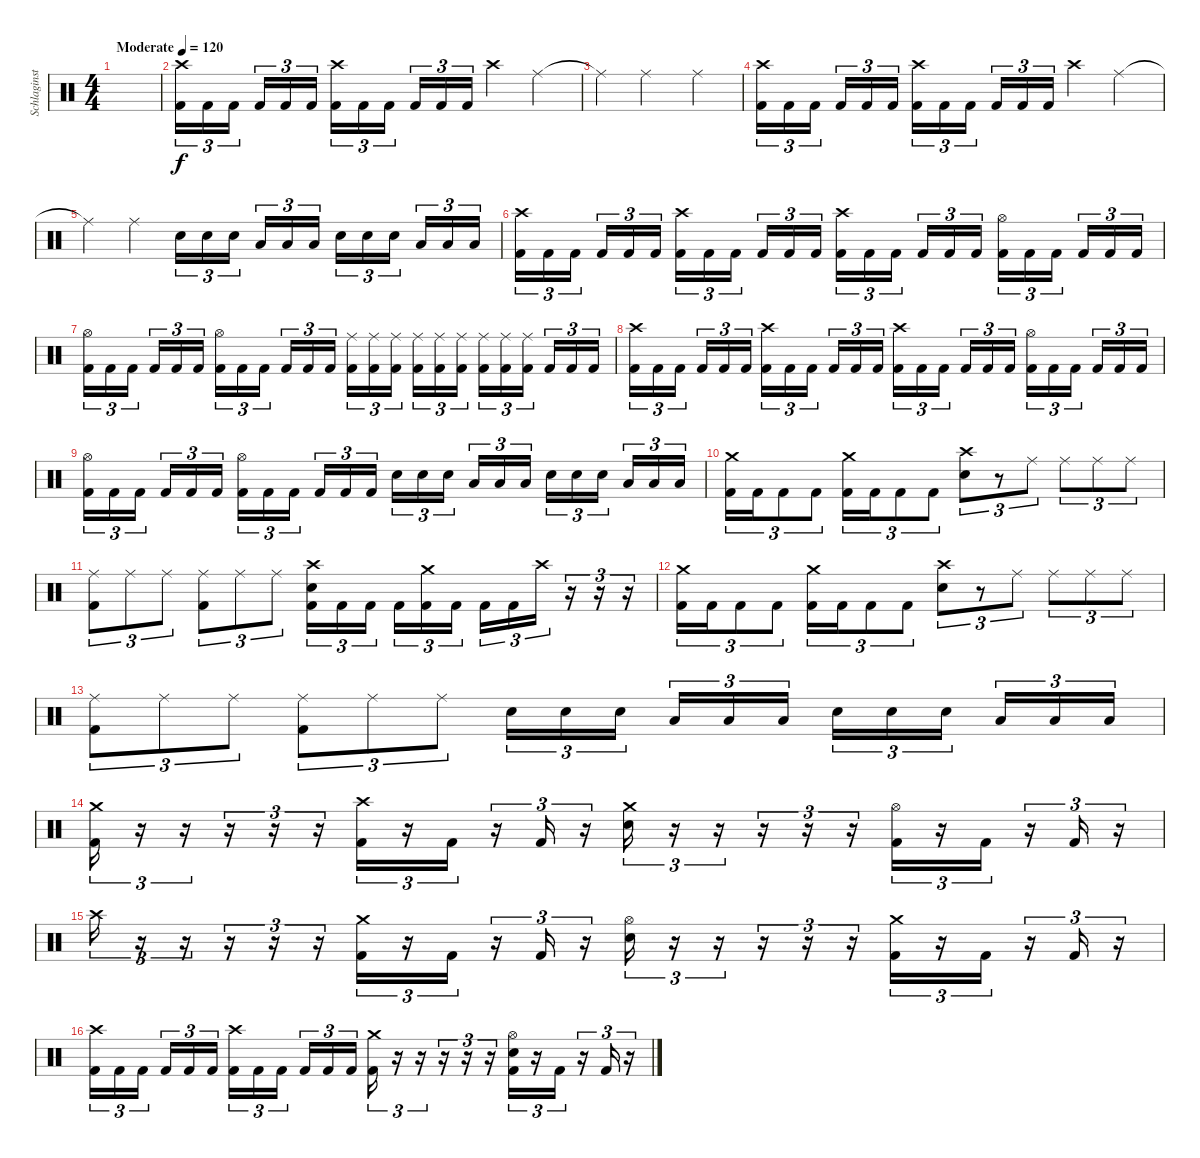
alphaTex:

\track ("Schlaginstrumente - Auswahl" "Schlaginst") {instrument percussion}
\staff {score}
\articulation defaults
\ts (4 4)
\tempo (120 "Moderate")
\clef neutral
\ks c
|
("Crash high (hit)" "Kick (hit) 2").16{tu (3 2)} "Kick (hit) 2".16{tu (3 2)} "Kick (hit) 2".16{tu (3 2) beam splitsecondary} "Kick (hit) 2".16{tu (3 2)} "Kick (hit) 2".16{tu (3 2)} "Kick (hit) 2".16{tu (3 2)} ("Crash high (hit)" "Kick (hit) 2").16{tu (3 2)} "Kick (hit) 2".16{tu (3 2)} "Kick (hit) 2".16{tu (3 2) beam splitsecondary} "Kick (hit) 2".16{tu (3 2)} "Kick (hit) 2".16{tu (3 2)} "Kick (hit) 2".16{tu (3 2)} "Crash high (hit)".4 "Ride (middle)".4 |
"Ride (middle)"{t}.4 "Ride (middle)".2 "Ride (middle)".4 |
("Crash high (hit)" "Kick (hit) 2").16{tu (3 2)} "Kick (hit) 2".16{tu (3 2)} "Kick (hit) 2".16{tu (3 2) beam splitsecondary} "Kick (hit) 2".16{tu (3 2)} "Kick (hit) 2".16{tu (3 2)} "Kick (hit) 2".16{tu (3 2)} ("Crash high (hit)" "Kick (hit) 2").16{tu (3 2)} "Kick (hit) 2".16{tu (3 2)} "Kick (hit) 2".16{tu (3 2) beam splitsecondary} "Kick (hit) 2".16{tu (3 2)} "Kick (hit) 2".16{tu (3 2)} "Kick (hit) 2".16{tu (3 2)} "Crash high (hit)".4 "Ride (middle)".4 |
"Ride (middle)"{t}.4 "Ride (middle)".4 "Electric Snare (hit)".16{tu (3 2)} "Electric Snare (hit)".16{tu (3 2)} "Electric Snare (hit)".16{tu (3 2) beam splitsecondary} "Low Tom (hit)".16{tu (3 2)} "Low Tom (hit)".16{tu (3 2)} "Low Tom (hit)".16{tu (3 2)} "Electric Snare (hit)".16{tu (3 2)} "Electric Snare (hit)".16{tu (3 2)} "Electric Snare (hit)".16{tu (3 2) beam splitsecondary} "Low Tom (hit)".16{tu (3 2)} "Low Tom (hit)".16{tu (3 2)} "Low Tom (hit)".16{tu (3 2)} |
("Crash high (hit)" "Kick (hit) 2").16{tu (3 2)} "Kick (hit) 2".16{tu (3 2)} "Kick (hit) 2".16{tu (3 2) beam splitsecondary} "Kick (hit) 2".16{tu (3 2)} "Kick (hit) 2".16{tu (3 2)} "Kick (hit) 2".16{tu (3 2)} ("Crash high (hit)" "Kick (hit) 2").16{tu (3 2)} "Kick (hit) 2".16{tu (3 2)} "Kick (hit) 2".16{tu (3 2) beam splitsecondary} "Kick (hit) 2".16{tu (3 2)} "Kick (hit) 2".16{tu (3 2)} "Kick (hit) 2".16{tu (3 2)} ("Crash high (hit)" "Kick (hit) 2").16{tu (3 2)} "Kick (hit) 2".16{tu (3 2)} "Kick (hit) 2".16{tu (3 2) beam splitsecondary} "Kick (hit) 2".16{tu (3 2)} "Kick (hit) 2".16{tu (3 2)} "Kick (hit) 2".16{tu (3 2)} ("Hi-Hat (open)" "Kick (hit) 2").16{tu (3 2)} "Kick (hit) 2".16{tu (3 2)} "Kick (hit) 2".16{tu (3 2) beam splitsecondary} "Kick (hit) 2".16{tu (3 2)} "Kick (hit) 2".16{tu (3 2)} "Kick (hit) 2".16{tu (3 2)} |
("Hi-Hat (open)" "Kick (hit) 2").16{tu (3 2)} "Kick (hit) 2".16{tu (3 2)} "Kick (hit) 2".16{tu (3 2) beam splitsecondary} "Kick (hit) 2".16{tu (3 2)} "Kick (hit) 2".16{tu (3 2)} "Kick (hit) 2".16{tu (3 2)} ("Hi-Hat (open)" "Kick (hit) 2").16{tu (3 2)} "Kick (hit) 2".16{tu (3 2)} "Kick (hit) 2".16{tu (3 2) beam splitsecondary} "Kick (hit) 2".16{tu (3 2)} "Kick (hit) 2".16{tu (3 2)} "Kick (hit) 2".16{tu (3 2)} ("Ride (middle)" "Kick (hit) 2").16{tu (3 2)} ("Ride (middle)" "Kick (hit) 2").16{tu (3 2)} ("Ride (middle)" "Kick (hit) 2").16{tu (3 2) beam splitsecondary} ("Ride (middle)" "Kick (hit) 2").16{tu (3 2)} ("Ride (middle)" "Kick (hit) 2").16{tu (3 2)} ("Ride (middle)" "Kick (hit) 2").16{tu (3 2)} ("Ride (middle)" "Kick (hit) 2").16{tu (3 2)} ("Ride (middle)" "Kick (hit) 2").16{tu (3 2)} ("Ride (middle)" "Kick (hit) 2").16{tu (3 2) beam splitsecondary} "Kick (hit) 2".16{tu (3 2)} "Kick (hit) 2".16{tu (3 2)} "Kick (hit) 2".16{tu (3 2)} |
("Crash high (hit)" "Kick (hit) 2").16{tu (3 2)} "Kick (hit) 2".16{tu (3 2)} "Kick (hit) 2".16{tu (3 2) beam splitsecondary} "Kick (hit) 2".16{tu (3 2)} "Kick (hit) 2".16{tu (3 2)} "Kick (hit) 2".16{tu (3 2)} ("Crash high (hit)" "Kick (hit) 2").16{tu (3 2)} "Kick (hit) 2".16{tu (3 2)} "Kick (hit) 2".16{tu (3 2) beam splitsecondary} "Kick (hit) 2".16{tu (3 2)} "Kick (hit) 2".16{tu (3 2)} "Kick (hit) 2".16{tu (3 2)} ("Crash high (hit)" "Kick (hit) 2").16{tu (3 2)} "Kick (hit) 2".16{tu (3 2)} "Kick (hit) 2".16{tu (3 2) beam splitsecondary} "Kick (hit) 2".16{tu (3 2)} "Kick (hit) 2".16{tu (3 2)} "Kick (hit) 2".16{tu (3 2)} ("Hi-Hat (open)" "Kick (hit) 2").16{tu (3 2)} "Kick (hit) 2".16{tu (3 2)} "Kick (hit) 2".16{tu (3 2) beam splitsecondary} "Kick (hit) 2".16{tu (3 2)} "Kick (hit) 2".16{tu (3 2)} "Kick (hit) 2".16{tu (3 2)} |
("Hi-Hat (open)" "Kick (hit) 2").16{tu (3 2)} "Kick (hit) 2".16{tu (3 2)} "Kick (hit) 2".16{tu (3 2) beam splitsecondary} "Kick (hit) 2".16{tu (3 2)} "Kick (hit) 2".16{tu (3 2)} "Kick (hit) 2".16{tu (3 2)} ("Hi-Hat (open)" "Kick (hit) 2").16{tu (3 2)} "Kick (hit) 2".16{tu (3 2)} "Kick (hit) 2".16{tu (3 2) beam splitsecondary} "Kick (hit) 2".16{tu (3 2)} "Kick (hit) 2".16{tu (3 2)} "Kick (hit) 2".16{tu (3 2)} "Electric Snare (hit)".16{tu (3 2)} "Electric Snare (hit)".16{tu (3 2)} "Electric Snare (hit)".16{tu (3 2) beam splitsecondary} "Low Tom (hit)".16{tu (3 2)} "Low Tom (hit)".16{tu (3 2)} "Low Tom (hit)".16{tu (3 2)} "Electric Snare (hit)".16{tu (3 2)} "Electric Snare (hit)".16{tu (3 2)} "Electric Snare (hit)".16{tu (3 2) beam splitsecondary} "Low Tom (hit)".16{tu (3 2)} "Low Tom (hit)".16{tu (3 2)} "Low Tom (hit)".16{tu (3 2)} |
("Crash medium (hit)" "Kick (hit) 2").16{tu (3 2)} "Kick (hit) 2".16{tu (3 2)} "Kick (hit) 2".8{tu (3 2)} "Kick (hit) 2".8{tu (3 2)} ("Crash medium (hit)" "Kick (hit) 2").16{tu (3 2)} "Kick (hit) 2".16{tu (3 2)} "Kick (hit) 2".8{tu (3 2)} "Kick (hit) 2".8{tu (3 2)} ("Crash high (hit)" "Electric Snare (hit)").8{tu (3 2)} r.8{tu (3 2)} "Ride (middle)".8{tu (3 2)} "Ride (middle)".8{tu (3 2)} "Ride (middle)".8{tu (3 2)} "Ride (middle)".8{tu (3 2)} |
("Ride (middle)" "Kick (hit) 2").8{tu (3 2)} "Ride (middle)".8{tu (3 2)} "Ride (middle)".8{tu (3 2)} ("Ride (middle)" "Kick (hit) 2").8{tu (3 2)} "Ride (middle)".8{tu (3 2)} "Ride (middle)".8{tu (3 2)} ("Crash high (hit)" "Electric Snare (hit)" "Kick (hit) 2").16{tu (3 2)} "Kick (hit) 2".16{tu (3 2)} "Kick (hit) 2".16{tu (3 2) beam splitsecondary} "Kick (hit) 2".16{tu (3 2)} ("Crash medium (hit)" "Kick (hit) 2").16{tu (3 2)} "Kick (hit) 2".16{tu (3 2)} "Kick (hit) 2".16{tu (3 2)} "Kick (hit) 2".16{tu (3 2)} "Crash high (hit)".16{tu (3 2)} r.16{tu (3 2)} r.16{tu (3 2)} r.16{tu (3 2)} |
("Crash medium (hit)" "Kick (hit) 2").16{tu (3 2)} "Kick (hit) 2".16{tu (3 2)} "Kick (hit) 2".8{tu (3 2)} "Kick (hit) 2".8{tu (3 2)} ("Crash medium (hit)" "Kick (hit) 2").16{tu (3 2)} "Kick (hit) 2".16{tu (3 2)} "Kick (hit) 2".8{tu (3 2)} "Kick (hit) 2".8{tu (3 2)} ("Crash high (hit)" "Electric Snare (hit)").8{tu (3 2)} r.8{tu (3 2)} "Ride (middle)".8{tu (3 2)} "Ride (middle)".8{tu (3 2)} "Ride (middle)".8{tu (3 2)} "Ride (middle)".8{tu (3 2)} |
("Ride (middle)" "Kick (hit) 2").8{tu (3 2)} "Ride (middle)".8{tu (3 2)} "Ride (middle)".8{tu (3 2)} ("Ride (middle)" "Kick (hit) 2").8{tu (3 2)} "Ride (middle)".8{tu (3 2)} "Ride (middle)".8{tu (3 2)} "Electric Snare (hit)".16{tu (3 2)} "Electric Snare (hit)".16{tu (3 2)} "Electric Snare (hit)".16{tu (3 2) beam splitsecondary} "Low Tom (hit)".16{tu (3 2)} "Low Tom (hit)".16{tu (3 2)} "Low Tom (hit)".16{tu (3 2)} "Electric Snare (hit)".16{tu (3 2)} "Electric Snare (hit)".16{tu (3 2)} "Electric Snare (hit)".16{tu (3 2) beam splitsecondary} "Low Tom (hit)".16{tu (3 2)} "Low Tom (hit)".16{tu (3 2)} "Low Tom (hit)".16{tu (3 2)} |
("Crash medium (hit)" "Kick (hit) 2").16{tu (3 2)} r.16{tu (3 2)} r.16{tu (3 2)} r.16{tu (3 2)} r.16{tu (3 2)} r.16{tu (3 2)} ("Crash high (hit)" "Kick (hit) 2").16{tu (3 2)} r.16{tu (3 2)} "Kick (hit) 2".16{tu (3 2)} r.16{tu (3 2)} "Kick (hit) 2".16{tu (3 2)} r.16{tu (3 2)} ("Crash medium (hit)" "Electric Snare (hit)").16{tu (3 2)} r.16{tu (3 2)} r.16{tu (3 2)} r.16{tu (3 2)} r.16{tu (3 2)} r.16{tu (3 2)} ("Hi-Hat (open)" "Kick (hit) 2").16{tu (3 2)} r.16{tu (3 2)} "Kick (hit) 2".16{tu (3 2)} r.16{tu (3 2)} "Kick (hit) 2".16{tu (3 2)} r.16{tu (3 2)} |
"Crash high (hit)".16{tu (3 2)} r.16{tu (3 2)} r.16{tu (3 2)} r.16{tu (3 2)} r.16{tu (3 2)} r.16{tu (3 2)} ("Crash medium (hit)" "Kick (hit) 2").16{tu (3 2)} r.16{tu (3 2)} "Kick (hit) 2".16{tu (3 2)} r.16{tu (3 2)} "Kick (hit) 2".16{tu (3 2)} r.16{tu (3 2)} ("Hi-Hat (open)" "Electric Snare (hit)").16{tu (3 2)} r.16{tu (3 2)} r.16{tu (3 2)} r.16{tu (3 2)} r.16{tu (3 2)} r.16{tu (3 2)} ("Crash medium (hit)" "Kick (hit) 2").16{tu (3 2)} r.16{tu (3 2)} "Kick (hit) 2".16{tu (3 2)} r.16{tu (3 2)} "Kick (hit) 2".16{tu (3 2)} r.16{tu (3 2)} |
("Crash high (hit)" "Kick (hit) 2").16{tu (3 2)} "Kick (hit) 2".16{tu (3 2)} "Kick (hit) 2".16{tu (3 2) beam splitsecondary} "Kick (hit) 2".16{tu (3 2)} "Kick (hit) 2".16{tu (3 2)} "Kick (hit) 2".16{tu (3 2)} ("Crash high (hit)" "Kick (hit) 2").16{tu (3 2)} "Kick (hit) 2".16{tu (3 2)} "Kick (hit) 2".16{tu (3 2) beam splitsecondary} "Kick (hit) 2".16{tu (3 2)} "Kick (hit) 2".16{tu (3 2)} "Kick (hit) 2".16{tu (3 2)} ("Crash medium (hit)" "Kick (hit) 2").16{tu (3 2)} r.16{tu (3 2)} r.16{tu (3 2)} r.16{tu (3 2)} r.16{tu (3 2)} r.16{tu (3 2)} ("Hi-Hat (open)" "Electric Snare (hit)" "Kick (hit) 2").16{tu (3 2)} r.16{tu (3 2)} "Kick (hit) 2".16{tu (3 2)} r.16{tu (3 2)} "Kick (hit) 2".16{tu (3 2)} r.16{tu (3 2)}
